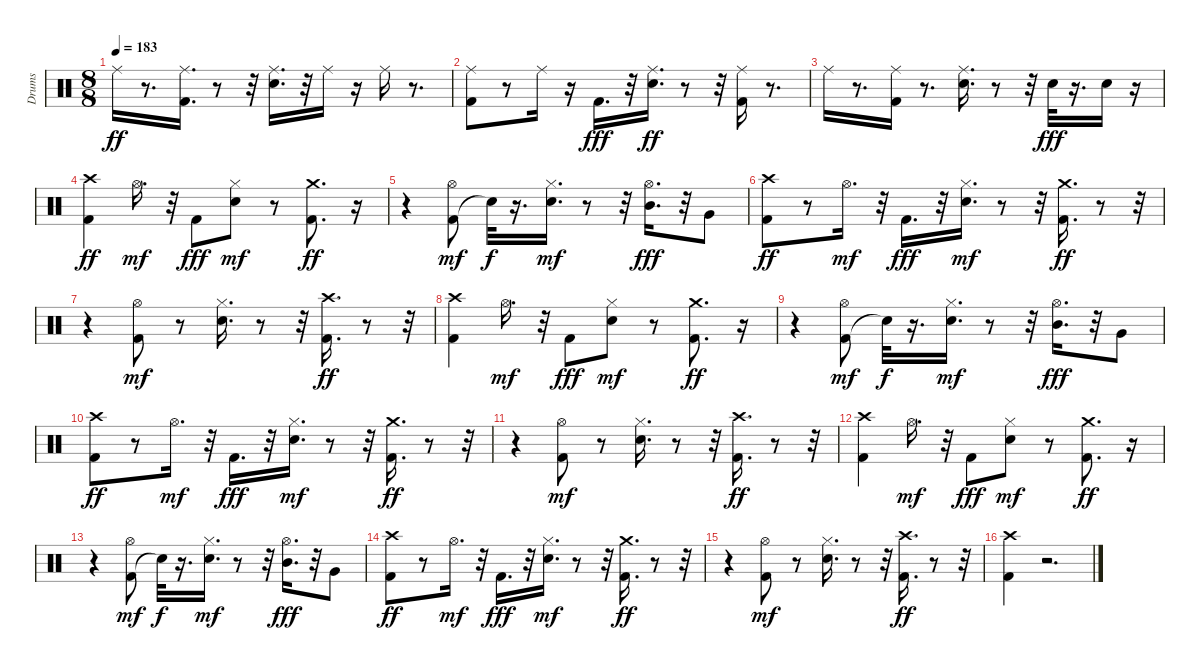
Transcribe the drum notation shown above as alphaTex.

\track ("Drums" "Drums") {instrument percussion}
\staff {score}
\articulation defaults
\ts (8 8)
\tempo 183
\clef neutral
\ks c "Ride (middle)".16{dy ff}
r.8{d} ("Kick (hit) 2" "Ride (middle)").16{d} r.8 r.32 ("Snare (hit) 2" "Ride (middle)").16{d} r.32 "Ride (middle)".16 r.16 "Ride (middle)".16 r.8{d} |
("Kick (hit) 2" "Ride (middle)").8 r.8 "Ride (middle)".16 r.16 "Kick (hit) 2".16{d dy fff} r.32 ("Snare (hit) 2" "Ride (middle)").16{d dy ff} r.8 r.32 ("Kick (hit) 2" "Ride (middle)").16 r.8{d} |
"Ride (middle)".16 r.8{d} ("Kick (hit) 2" "Ride (middle)").16 r.8{d} ("Snare (hit) 2" "Ride (middle)").16{d} r.8 r.32 "Snare (hit) 2".32{dy fff} r.16{d} "Snare (hit) 2".16 r.16 |
("Kick (hit) 2" "Crash high (hit)").4{dy ff} "Hi-Hat (open)".16{d dy mf} r.32 "Kick (hit) 2".8{dy fff} ("Snare (hit) 2" "Hi-Hat (closed)").8{dy mf} r.8 ("Kick (hit) 2" "Crash medium (hit)").8{d dy ff} r.16 |
r.4 ("Kick (hit) 2" "Hi-Hat (open)").8{dy mf} "Snare (hit)"{t}.32{dy f} r.16{d} ("Snare (hit) 2" "Hi-Hat (closed)").16{d dy mf} r.8 r.32 ("Hi-Hat (open)" "Mid Tom (hit)").16{d dy fff} r.32 "Very Low Tom (hit)".8 |
("Kick (hit) 2" "Crash high (hit)").8{dy ff} r.8 "Hi-Hat (open)".16{d dy mf} r.32 "Kick (hit) 2".16{d dy fff} r.32 ("Snare (hit) 2" "Hi-Hat (closed)").16{d dy mf} r.8 r.32 ("Kick (hit) 2" "Crash medium (hit)").16{d dy ff} r.8 r.32 |
r.4 ("Kick (hit) 2" "Hi-Hat (open)").8{dy mf} r.8 ("Snare (hit) 2" "Hi-Hat (closed)").16{d} r.8 r.32 ("Kick (hit) 2" "Crash high (hit)").16{d dy ff} r.8 r.32 |
("Kick (hit) 2" "Crash high (hit)").4 "Hi-Hat (open)".16{d dy mf} r.32 "Kick (hit) 2".8{dy fff} ("Snare (hit) 2" "Hi-Hat (closed)").8{dy mf} r.8 ("Kick (hit) 2" "Crash medium (hit)").8{d dy ff} r.16 |
r.4 ("Kick (hit) 2" "Hi-Hat (open)").8{dy mf} "Snare (hit)"{t}.32{dy f} r.16{d} ("Snare (hit) 2" "Hi-Hat (closed)").16{d dy mf} r.8 r.32 ("Hi-Hat (open)" "Mid Tom (hit)").16{d dy fff} r.32 "Very Low Tom (hit)".8 |
("Kick (hit) 2" "Crash high (hit)").8{dy ff} r.8 "Hi-Hat (open)".16{d dy mf} r.32 "Kick (hit) 2".16{d dy fff} r.32 ("Snare (hit) 2" "Hi-Hat (closed)").16{d dy mf} r.8 r.32 ("Kick (hit) 2" "Crash medium (hit)").16{d dy ff} r.8 r.32 |
r.4 ("Kick (hit) 2" "Hi-Hat (open)").8{dy mf} r.8 ("Snare (hit) 2" "Hi-Hat (closed)").16{d} r.8 r.32 ("Kick (hit) 2" "Crash high (hit)").16{d dy ff} r.8 r.32 |
("Kick (hit) 2" "Crash high (hit)").4 "Hi-Hat (open)".16{d dy mf} r.32 "Kick (hit) 2".8{dy fff} ("Snare (hit) 2" "Hi-Hat (closed)").8{dy mf} r.8 ("Kick (hit) 2" "Crash medium (hit)").8{d dy ff} r.16 |
r.4 ("Kick (hit) 2" "Hi-Hat (open)").8{dy mf} "Snare (hit)"{t}.32{dy f} r.16{d} ("Snare (hit) 2" "Hi-Hat (closed)").16{d dy mf} r.8 r.32 ("Hi-Hat (open)" "Mid Tom (hit)").16{d dy fff} r.32 "Very Low Tom (hit)".8 |
("Kick (hit) 2" "Crash high (hit)").8{dy ff} r.8 "Hi-Hat (open)".16{d dy mf} r.32 "Kick (hit) 2".16{d dy fff} r.32 ("Snare (hit) 2" "Hi-Hat (closed)").16{d dy mf} r.8 r.32 ("Kick (hit) 2" "Crash medium (hit)").16{d dy ff} r.8 r.32 |
r.4 ("Kick (hit) 2" "Hi-Hat (open)").8{dy mf} r.8 ("Snare (hit) 2" "Hi-Hat (closed)").16{d} r.8 r.32 ("Kick (hit) 2" "Crash high (hit)").16{d dy ff} r.8 r.32 |
("Kick (hit) 2" "Crash high (hit)").4 r.2{d}
